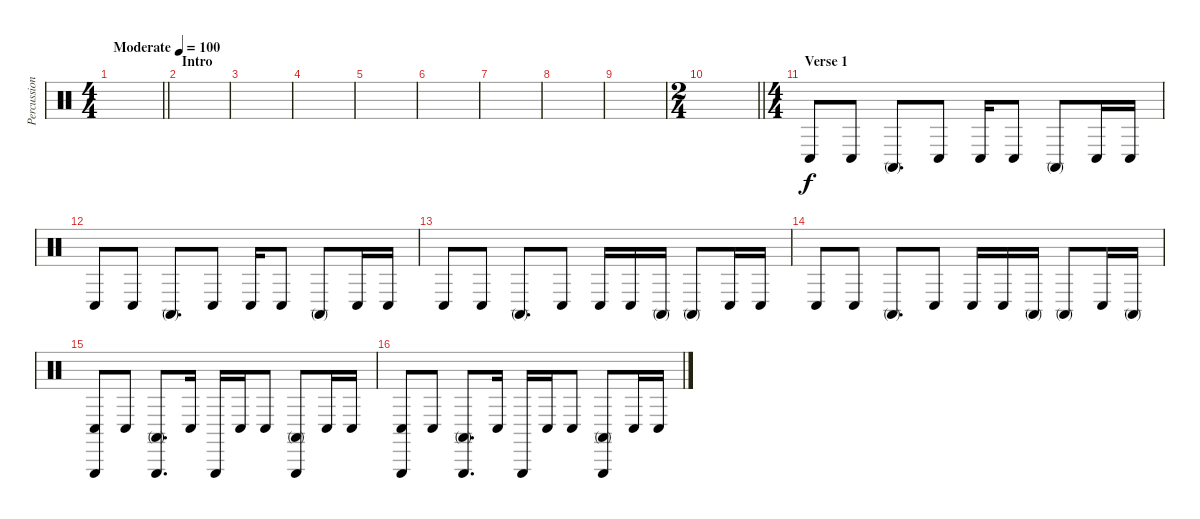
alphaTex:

\track ("Percussion" "Percussion") {instrument percussion}
\staff {score}
\articulation defaults
\ts (4 4)
\tempo (100 "Moderate")
\clef neutral
\barLineRight lightlight
\ks c
|
\section ("" "Intro")
|
|
|
|
|
|
|
|
\ts (2 4)
\barLineRight lightlight
|
\ts (4 4)
\section ("" "Verse 1")
"Conga low (hit)".8 "Conga low (hit)".8 "Conga high (mute)".8{d} "Conga low (hit)".8 "Conga low (hit)".16 "Conga low (hit)".8 "Conga high (mute)".8 "Conga low (hit)".16 "Conga low (hit)".16 |
"Conga low (hit)".8 "Conga low (hit)".8 "Conga high (mute)".8{d} "Conga low (hit)".8 "Conga low (hit)".16 "Conga low (hit)".8 "Conga high (mute)".8 "Conga low (hit)".16 "Conga low (hit)".16 |
"Conga low (hit)".8 "Conga low (hit)".8 "Conga high (mute)".8{d} "Conga low (hit)".8 "Conga low (hit)".16 "Conga low (hit)".16 "Conga high (mute)".16 "Conga high (mute)".8 "Conga low (hit)".16 "Conga low (hit)".16 |
"Conga low (hit)".8 "Conga low (hit)".8 "Conga high (mute)".8{d} "Conga low (hit)".8 "Conga low (hit)".16 "Conga low (hit)".16 "Conga high (mute)".16 "Conga high (mute)".8 "Conga low (hit)".16 "Conga high (mute)".16 |
("Triangle (hit)" "Conga low (hit)").8 "Conga low (hit)".8 ("Triangle (hit)" "Conga high (mute)").8{d} "Conga low (hit)".16 "Triangle (hit)".16 "Conga low (hit)".16 "Conga low (hit)".8 ("Triangle (hit)" "Conga high (mute)").8 "Conga low (hit)".16 "Conga low (hit)".16 |
("Triangle (hit)" "Conga low (hit)").8 "Conga low (hit)".8 ("Triangle (hit)" "Conga high (mute)").8{d} "Conga low (hit)".16 "Triangle (hit)".16 "Conga low (hit)".16 "Conga low (hit)".8 ("Triangle (hit)" "Conga high (mute)").8 "Conga low (hit)".16 "Conga low (hit)".16
